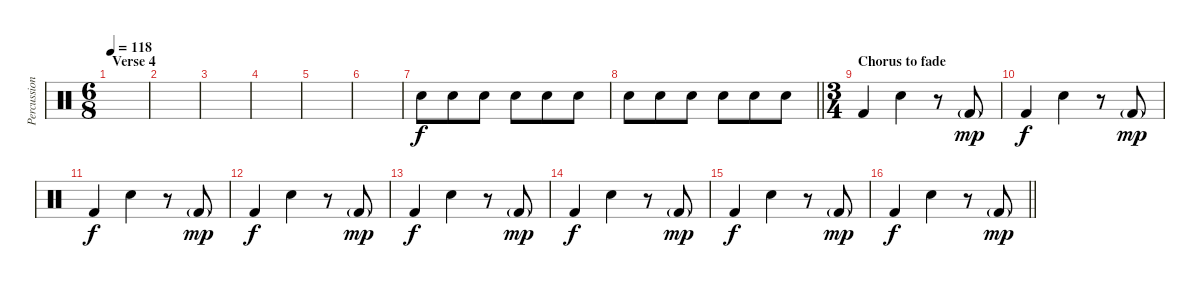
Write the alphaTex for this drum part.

\track ("Percussion" "Percussion") {instrument percussion}
\staff {score}
\articulation defaults
\ts (6 8)
\section ("" "Verse 4")
\tempo 118
\clef neutral
\ks c
|
|
|
|
|
|
"Snare (hit) 2".8{volume 1} "Snare (hit) 2".8{volume 3} "Snare (hit) 2".8 "Snare (hit) 2".8 "Snare (hit) 2".8 "Snare (hit) 2".8 |
\barLineRight lightlight "Snare (hit) 2".8 "Snare (hit) 2".8 "Snare (hit) 2".8 "Snare (hit) 2".8 "Snare (hit) 2".8 "Snare (hit) 2".8
|
\ts (3 4)
\section ("" "Chorus to fade")
"Kick (hit) 2".4 "Snare (hit) 2".4 r.8 "Kick (hit) 2"{g}.8{dy mp} |
"Kick (hit) 2".4{dy f} "Snare (hit) 2".4 r.8 "Kick (hit) 2"{g}.8{dy mp} |
"Kick (hit) 2".4{dy f} "Snare (hit) 2".4 r.8 "Kick (hit) 2"{g}.8{dy mp} |
"Kick (hit) 2".4{dy f} "Snare (hit) 2".4 r.8 "Kick (hit) 2"{g}.8{dy mp} |
"Kick (hit) 2".4{dy f} "Snare (hit) 2".4 r.8 "Kick (hit) 2"{g}.8{dy mp} |
"Kick (hit) 2".4{dy f} "Snare (hit) 2".4 r.8 "Kick (hit) 2"{g}.8{dy mp} |
"Kick (hit) 2".4{dy f} "Snare (hit) 2".4 r.8 "Kick (hit) 2"{g}.8{dy mp} |
\barLineRight lightlight "Kick (hit) 2".4{dy f} "Snare (hit) 2".4
r.8 "Kick (hit) 2"{g}.8{dy mp}
